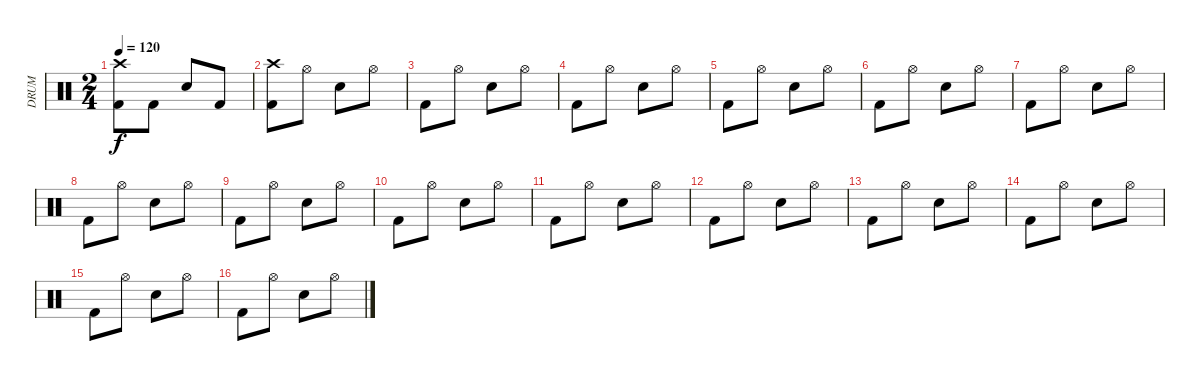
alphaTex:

\track ("DRUM" "DRUM") {instrument percussion}
\staff {score}
\articulation defaults
\ts (2 4)
\tempo 120
\clef neutral
\ks c
("Crash high (hit)" "Kick (hit) 2").8{dy f} "Kick (hit) 2".8 "Electric Snare (hit)".8 "Kick (hit) 2".8 |
("Crash high (hit)" "Kick (hit) 2").8 "Hi-Hat (open)".8 "Electric Snare (hit)".8 "Hi-Hat (open)".8 |
"Kick (hit) 2".8 "Hi-Hat (open)".8 "Electric Snare (hit)".8 "Hi-Hat (open)".8 |
"Kick (hit) 2".8 "Hi-Hat (open)".8 "Electric Snare (hit)".8 "Hi-Hat (open)".8 |
"Kick (hit) 2".8 "Hi-Hat (open)".8 "Electric Snare (hit)".8 "Hi-Hat (open)".8 |
"Kick (hit) 2".8 "Hi-Hat (open)".8 "Electric Snare (hit)".8 "Hi-Hat (open)".8 |
"Kick (hit) 2".8 "Hi-Hat (open)".8 "Electric Snare (hit)".8 "Hi-Hat (open)".8 |
"Kick (hit) 2".8 "Hi-Hat (open)".8 "Electric Snare (hit)".8 "Hi-Hat (open)".8 |
"Kick (hit) 2".8 "Hi-Hat (open)".8 "Electric Snare (hit)".8 "Hi-Hat (open)".8 |
"Kick (hit) 2".8 "Hi-Hat (open)".8 "Electric Snare (hit)".8 "Hi-Hat (open)".8 |
"Kick (hit) 2".8 "Hi-Hat (open)".8 "Electric Snare (hit)".8 "Hi-Hat (open)".8 |
"Kick (hit) 2".8 "Hi-Hat (open)".8 "Electric Snare (hit)".8 "Hi-Hat (open)".8 |
"Kick (hit) 2".8 "Hi-Hat (open)".8 "Electric Snare (hit)".8 "Hi-Hat (open)".8 |
"Kick (hit) 2".8 "Hi-Hat (open)".8 "Electric Snare (hit)".8 "Hi-Hat (open)".8 |
"Kick (hit) 2".8 "Hi-Hat (open)".8 "Electric Snare (hit)".8 "Hi-Hat (open)".8 |
"Kick (hit) 2".8 "Hi-Hat (open)".8 "Electric Snare (hit)".8 "Hi-Hat (open)".8
